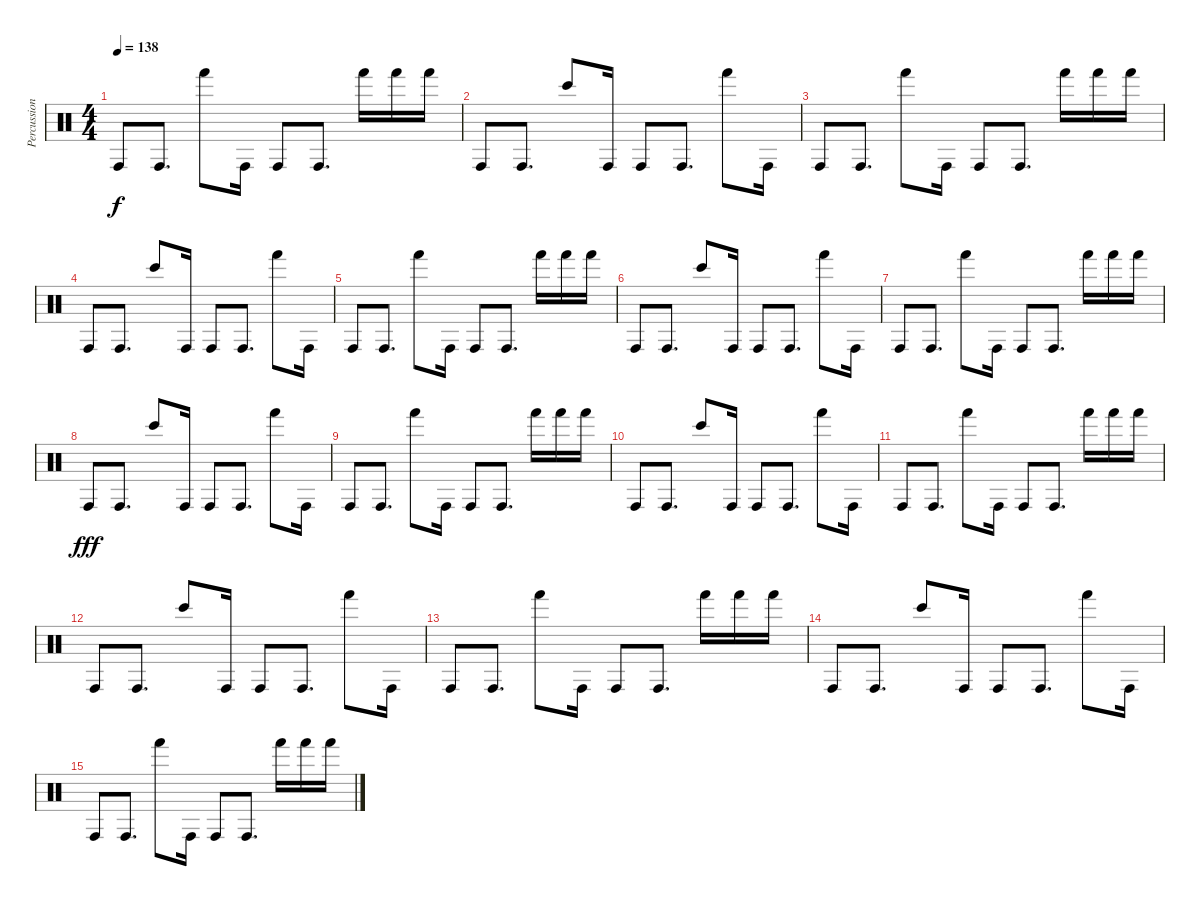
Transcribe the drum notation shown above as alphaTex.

\track ("Percussion" "Percussion") {instrument percussion}
\staff {score}
\articulation defaults
\ts (4 4)
\tempo 138
\clef neutral
\ks c "Conga high (hit)".8{dy f} "Conga high (hit)".8{d} "Hand (hit)".8 "Conga high (hit)".16 "Conga high (hit)".8 "Conga high (hit)".8{d} "Hand (hit)".16 "Hand (hit)".16 "Hand (hit)".16
|
"Conga high (hit)".8 "Conga high (hit)".8{d} "Bongo High (hit)".8 "Conga high (hit)".16 "Conga high (hit)".8 "Conga high (hit)".8{d} "Hand (hit)".8 "Conga high (hit)".16 |
"Conga high (hit)".8 "Conga high (hit)".8{d} "Hand (hit)".8 "Conga high (hit)".16 "Conga high (hit)".8 "Conga high (hit)".8{d} "Hand (hit)".16 "Hand (hit)".16 "Hand (hit)".16 |
"Conga high (hit)".8 "Conga high (hit)".8{d} "Bongo High (hit)".8 "Conga high (hit)".16 "Conga high (hit)".8 "Conga high (hit)".8{d} "Hand (hit)".8 "Conga high (hit)".16 |
"Conga high (hit)".8 "Conga high (hit)".8{d} "Hand (hit)".8 "Conga high (hit)".16 "Conga high (hit)".8 "Conga high (hit)".8{d} "Hand (hit)".16 "Hand (hit)".16 "Hand (hit)".16 |
"Conga high (hit)".8 "Conga high (hit)".8{d} "Bongo High (hit)".8 "Conga high (hit)".16 "Conga high (hit)".8 "Conga high (hit)".8{d} "Hand (hit)".8 "Conga high (hit)".16 |
"Conga high (hit)".8 "Conga high (hit)".8{d} "Hand (hit)".8 "Conga high (hit)".16 "Conga high (hit)".8 "Conga high (hit)".8{d} "Hand (hit)".16 "Hand (hit)".16 "Hand (hit)".16 |
"Conga high (hit)".8{dy fff} "Conga high (hit)".8{d} "Bongo High (hit)".8 "Conga high (hit)".16 "Conga high (hit)".8 "Conga high (hit)".8{d} "Hand (hit)".8 "Conga high (hit)".16 |
"Conga high (hit)".8 "Conga high (hit)".8{d} "Hand (hit)".8 "Conga high (hit)".16 "Conga high (hit)".8 "Conga high (hit)".8{d} "Hand (hit)".16 "Hand (hit)".16 "Hand (hit)".16 |
"Conga high (hit)".8 "Conga high (hit)".8{d} "Bongo High (hit)".8 "Conga high (hit)".16 "Conga high (hit)".8 "Conga high (hit)".8{d} "Hand (hit)".8 "Conga high (hit)".16 |
"Conga high (hit)".8 "Conga high (hit)".8{d} "Hand (hit)".8 "Conga high (hit)".16 "Conga high (hit)".8 "Conga high (hit)".8{d} "Hand (hit)".16 "Hand (hit)".16 "Hand (hit)".16 |
"Conga high (hit)".8 "Conga high (hit)".8{d} "Bongo High (hit)".8 "Conga high (hit)".16 "Conga high (hit)".8 "Conga high (hit)".8{d} "Hand (hit)".8 "Conga high (hit)".16 |
"Conga high (hit)".8 "Conga high (hit)".8{d} "Hand (hit)".8 "Conga high (hit)".16 "Conga high (hit)".8 "Conga high (hit)".8{d} "Hand (hit)".16 "Hand (hit)".16 "Hand (hit)".16 |
"Conga high (hit)".8 "Conga high (hit)".8{d} "Bongo High (hit)".8 "Conga high (hit)".16 "Conga high (hit)".8 "Conga high (hit)".8{d} "Hand (hit)".8 "Conga high (hit)".16 |
"Conga high (hit)".8 "Conga high (hit)".8{d} "Hand (hit)".8 "Conga high (hit)".16 "Conga high (hit)".8 "Conga high (hit)".8{d} "Hand (hit)".16 "Hand (hit)".16 "Hand (hit)".16
